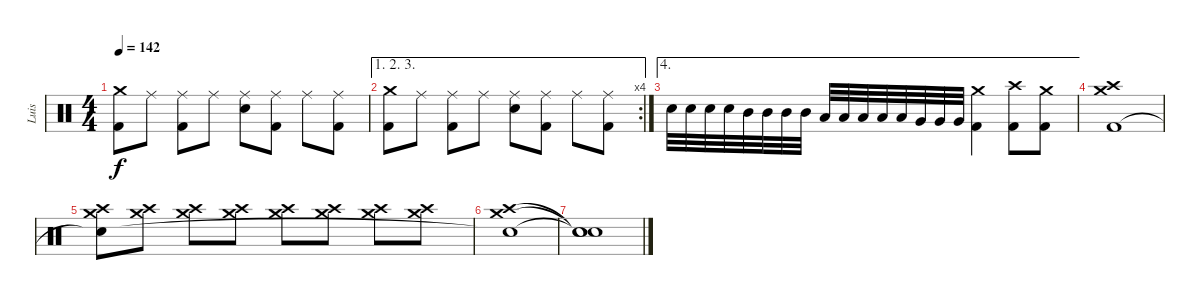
\track ("Luis" "Luis") {instrument percussion}
\staff {score}
\articulation defaults
\ts (4 4)
\tempo 142
\clef neutral
\ks c
("Crash medium (hit)" "Kick (hit) 2").8{dy f} "Ride (middle)".8 ("Ride (middle)" "Kick (hit) 2").8 "Ride (middle)".8 ("Ride (middle)" "Electric Snare (hit)").8 ("Ride (middle)" "Kick (hit) 2").8 "Ride (middle)".8 ("Ride (middle)" "Kick (hit) 2").8 |
\ae (1 2 3)
\rc 4
("Crash medium (hit)" "Kick (hit) 2").8 "Ride (middle)".8 ("Ride (middle)" "Kick (hit) 2").8 "Ride (middle)".8 ("Ride (middle)" "Electric Snare (hit)").8 ("Ride (middle)" "Kick (hit) 2").8 "Ride (middle)".8 ("Ride (middle)" "Kick (hit) 2").8 |
\ae 4 "Electric Snare (hit)".32 "Electric Snare (hit)".32 "Electric Snare (hit)".32 "Electric Snare (hit)".32 "Mid Tom (hit)".32 "Mid Tom (hit)".32 "Mid Tom (hit)".32 "Mid Tom (hit)".32 "Low Tom (hit)".32 "Low Tom (hit)".32 "Low Tom (hit)".32 "Low Tom (hit)".32 "Low Tom (hit)".32 "Very Low Tom (hit)".32 "Very Low Tom (hit)".32 "Very Low Tom (hit)".32
("Crash medium (hit)" "Kick (hit) 2").4 ("Crash high (hit)" "Kick (hit) 2").8 ("Crash medium (hit)" "Kick (hit) 2").8 |
("Crash medium (hit)" "Crash high (hit)" "Kick (hit) 2").1 |
("Crash medium (hit)" "Crash high (hit)" "Snare (hit)"{t}).8 ("Crash medium (hit)" "Crash high (hit)").8 ("Crash medium (hit)" "Crash high (hit)").8 ("Crash medium (hit)" "Crash high (hit)").8 ("Crash medium (hit)" "Crash high (hit)").8 ("Crash medium (hit)" "Crash high (hit)").8 ("Crash medium (hit)" "Crash high (hit)").8 ("Crash medium (hit)" "Crash high (hit)").8 |
("Crash medium (hit)" "Crash high (hit)" "Snare (hit)"{t}).1 |
("Snare (hit)"{t} "Snare (hit)"{t} "Snare (hit)"{t}).1
